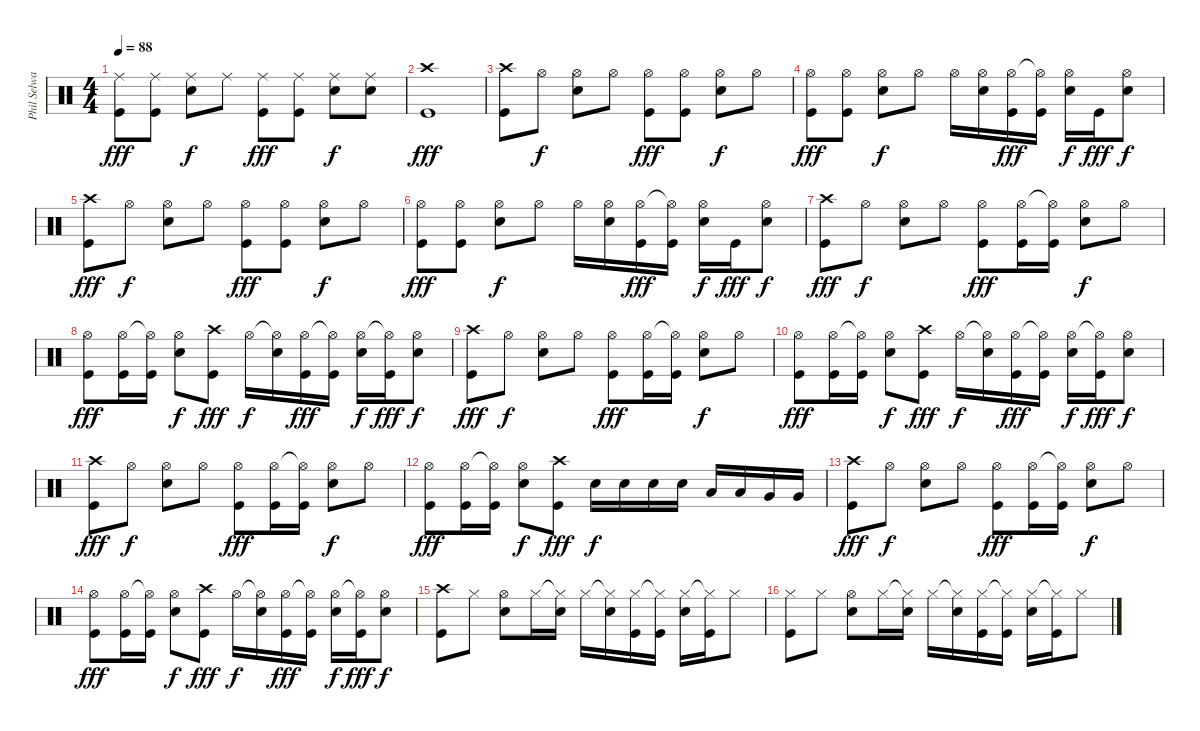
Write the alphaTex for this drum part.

\track ("Phil Selway" "Phil Selwa") {instrument percussion}
\staff {score}
\articulation defaults
\ts (4 4)
\tempo 88
\clef neutral
\ks c
("Ride (middle)" "Kick (hit)").8{dy fff} ("Ride (middle)" "Kick (hit)").8 ("Ride (middle)" "Snare (hit) 2").8{dy f} "Ride (middle)".8 ("Ride (middle)" "Kick (hit)").8{dy fff} ("Ride (middle)" "Kick (hit)").8 ("Ride (middle)" "Snare (hit) 2").8{dy f} ("Ride (middle)" "Snare (hit) 2").8 |
("Crash high (hit)" "Kick (hit)").1{dy fff} |
("Crash high (hit)" "Kick (hit)").8 "Hi-Hat (open)".8{dy f} ("Hi-Hat (open)" "Snare (hit) 2").8 "Hi-Hat (open)".8 ("Hi-Hat (open)" "Kick (hit)").8{dy fff} ("Hi-Hat (open)" "Kick (hit)").8 ("Hi-Hat (open)" "Snare (hit) 2").8{dy f} "Hi-Hat (open)".8 |
("Hi-Hat (open)" "Kick (hit)").8{dy fff} ("Hi-Hat (open)" "Kick (hit)").8 ("Hi-Hat (open)" "Snare (hit) 2").8{dy f} "Hi-Hat (open)".8 "Hi-Hat (open)".16 ("Hi-Hat (open)" "Snare (hit) 2").16 ("Hi-Hat (open)" "Kick (hit)").16{dy fff} ("Hi-Hat (open)"{t} "Kick (hit)").16 ("Hi-Hat (open)" "Snare (hit) 2").16{dy f} "Kick (hit)".16{dy fff} ("Hi-Hat (open)" "Snare (hit) 2").8{dy f} |
("Crash high (hit)" "Kick (hit)").8{dy fff} "Hi-Hat (open)".8{dy f} ("Hi-Hat (open)" "Snare (hit) 2").8 "Hi-Hat (open)".8 ("Hi-Hat (open)" "Kick (hit)").8{dy fff} ("Hi-Hat (open)" "Kick (hit)").8 ("Hi-Hat (open)" "Snare (hit) 2").8{dy f} "Hi-Hat (open)".8 |
("Hi-Hat (open)" "Kick (hit)").8{dy fff} ("Hi-Hat (open)" "Kick (hit)").8 ("Hi-Hat (open)" "Snare (hit) 2").8{dy f} "Hi-Hat (open)".8 "Hi-Hat (open)".16 ("Hi-Hat (open)" "Snare (hit) 2").16 ("Hi-Hat (open)" "Kick (hit)").16{dy fff} ("Hi-Hat (open)"{t} "Kick (hit)").16 ("Hi-Hat (open)" "Snare (hit) 2").16{dy f} "Kick (hit)".16{dy fff} ("Hi-Hat (open)" "Snare (hit) 2").8{dy f} |
("Crash high (hit)" "Kick (hit)").8{dy fff} "Hi-Hat (open)".8{dy f} ("Hi-Hat (open)" "Snare (hit) 2").8 "Hi-Hat (open)".8 ("Hi-Hat (open)" "Kick (hit)").8{dy fff} ("Hi-Hat (open)" "Kick (hit)").16 ("Hi-Hat (open)"{t} "Kick (hit)").16 ("Hi-Hat (open)" "Snare (hit) 2").8{dy f} "Hi-Hat (open)".8 |
("Hi-Hat (open)" "Kick (hit)").8{dy fff} ("Hi-Hat (open)" "Kick (hit)").16 ("Hi-Hat (open)"{t} "Kick (hit)").16 ("Hi-Hat (open)" "Snare (hit) 2").8{dy f} ("Crash high (hit)" "Kick (hit)").8{dy fff} "Hi-Hat (open)".16{dy f} ("Hi-Hat (open)"{t} "Snare (hit) 2").16 ("Hi-Hat (open)" "Kick (hit)").16{dy fff} ("Hi-Hat (open)"{t} "Kick (hit)").16 ("Hi-Hat (open)" "Snare (hit) 2").16{dy f} ("Hi-Hat (open)"{t} "Kick (hit)").16{dy fff} ("Hi-Hat (open)" "Snare (hit) 2").8{dy f} |
("Crash high (hit)" "Kick (hit)").8{dy fff} "Hi-Hat (open)".8{dy f} ("Hi-Hat (open)" "Snare (hit) 2").8 "Hi-Hat (open)".8 ("Hi-Hat (open)" "Kick (hit)").8{dy fff} ("Hi-Hat (open)" "Kick (hit)").16 ("Hi-Hat (open)"{t} "Kick (hit)").16 ("Hi-Hat (open)" "Snare (hit) 2").8{dy f} "Hi-Hat (open)".8 |
("Hi-Hat (open)" "Kick (hit)").8{dy fff} ("Hi-Hat (open)" "Kick (hit)").16 ("Hi-Hat (open)"{t} "Kick (hit)").16 ("Hi-Hat (open)" "Snare (hit) 2").8{dy f} ("Crash high (hit)" "Kick (hit)").8{dy fff} "Hi-Hat (open)".16{dy f} ("Hi-Hat (open)"{t} "Snare (hit) 2").16 ("Hi-Hat (open)" "Kick (hit)").16{dy fff} ("Hi-Hat (open)"{t} "Kick (hit)").16 ("Hi-Hat (open)" "Snare (hit) 2").16{dy f} ("Hi-Hat (open)"{t} "Kick (hit)").16{dy fff} ("Hi-Hat (open)" "Snare (hit) 2").8{dy f} |
("Crash high (hit)" "Kick (hit)").8{dy fff} "Hi-Hat (open)".8{dy f} ("Hi-Hat (open)" "Snare (hit) 2").8 "Hi-Hat (open)".8 ("Hi-Hat (open)" "Kick (hit)").8{dy fff} ("Hi-Hat (open)" "Kick (hit)").16 ("Hi-Hat (open)"{t} "Kick (hit)").16 ("Hi-Hat (open)" "Snare (hit) 2").8{dy f} "Hi-Hat (open)".8 |
("Hi-Hat (open)" "Kick (hit)").8{dy fff} ("Hi-Hat (open)" "Kick (hit)").16 ("Hi-Hat (open)"{t} "Kick (hit)").16 ("Hi-Hat (open)" "Snare (hit) 2").8{dy f} ("Crash high (hit)" "Kick (hit)").8{dy fff} "Snare (hit) 2".16{dy f} "Snare (hit) 2".16 "Snare (hit) 2".16 "Snare (hit) 2".16 "Low Tom (hit)".16 "Low Tom (hit)".16 "Very Low Tom (hit)".16 "Very Low Tom (hit)".16 |
("Crash high (hit)" "Kick (hit)").8{dy fff} "Hi-Hat (open)".8{dy f} ("Hi-Hat (open)" "Snare (hit) 2").8 "Hi-Hat (open)".8 ("Hi-Hat (open)" "Kick (hit)").8{dy fff} ("Hi-Hat (open)" "Kick (hit)").16 ("Hi-Hat (open)"{t} "Kick (hit)").16 ("Hi-Hat (open)" "Snare (hit) 2").8{dy f} "Hi-Hat (open)".8 |
("Hi-Hat (open)" "Kick (hit)").8{dy fff} ("Hi-Hat (open)" "Kick (hit)").16 ("Hi-Hat (open)"{t} "Kick (hit)").16 ("Hi-Hat (open)" "Snare (hit) 2").8{dy f} ("Crash high (hit)" "Kick (hit)").8{dy fff} "Hi-Hat (open)".16{dy f} ("Hi-Hat (open)"{t} "Snare (hit) 2").16 ("Hi-Hat (open)" "Kick (hit)").16{dy fff} ("Hi-Hat (open)"{t} "Kick (hit)").16 ("Hi-Hat (open)" "Snare (hit) 2").16{dy f} ("Hi-Hat (open)"{t} "Kick (hit)").16{dy fff} ("Hi-Hat (open)" "Snare (hit) 2").8{dy f} |
("Crash high (hit)" "Kick (hit)").8 "Hi-Hat (closed)".8 ("Hi-Hat (open)" "Snare (hit) 2").8 "Hi-Hat (closed)".16 ("Hi-Hat (closed)"{t} "Snare (hit) 2").16 "Hi-Hat (closed)".16 ("Hi-Hat (closed)"{t} "Snare (hit) 2").16 ("Hi-Hat (closed)" "Kick (hit)").16 ("Hi-Hat (closed)"{t} "Kick (hit)").16 ("Hi-Hat (closed)" "Snare (hit) 2").16 ("Hi-Hat (closed)"{t} "Kick (hit)").16 "Hi-Hat (closed)".8 |
("Hi-Hat (closed)" "Kick (hit)").8 "Hi-Hat (closed)".8 ("Hi-Hat (open)" "Snare (hit) 2").8 "Hi-Hat (closed)".16 ("Hi-Hat (closed)"{t} "Snare (hit) 2").16 "Hi-Hat (closed)".16 ("Hi-Hat (closed)"{t} "Snare (hit) 2").16 ("Hi-Hat (closed)" "Kick (hit)").16 ("Hi-Hat (closed)"{t} "Kick (hit)").16 ("Hi-Hat (closed)" "Snare (hit) 2").16 ("Hi-Hat (closed)"{t} "Kick (hit)").16 "Hi-Hat (closed)".8
